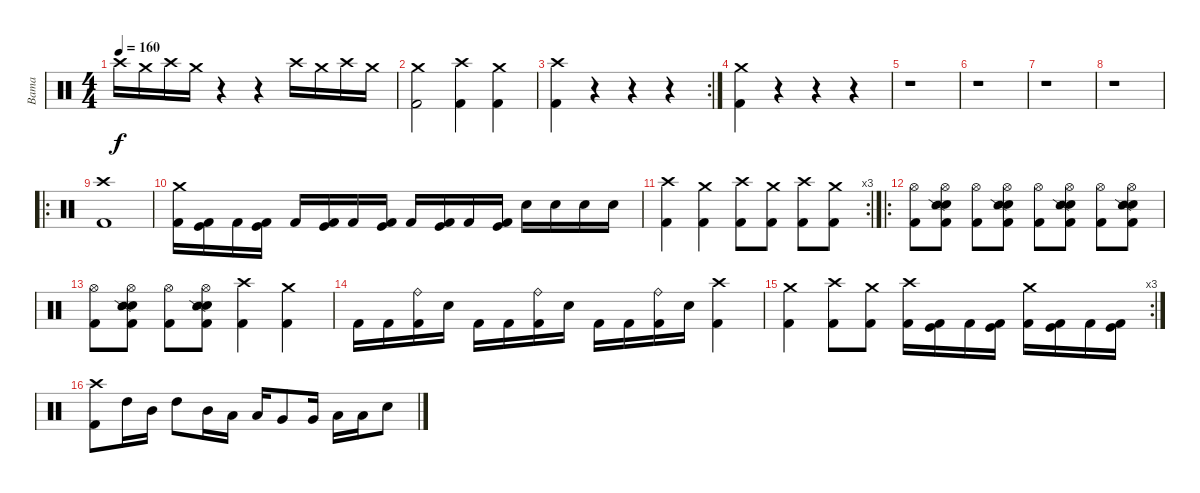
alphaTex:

\track ("Bama" "Bama") {instrument percussion}
\staff {score}
\articulation defaults
\ts (4 4)
\tempo 160
\clef neutral
\ks c "Crash high (hit)".16{dy f} "Crash medium (hit)".16 "Crash high (hit)".16 "Crash medium (hit)".16
r.4 r.4 "Crash high (hit)".16 "Crash medium (hit)".16 "Crash high (hit)".16 "Crash medium (hit)".16 |
("Crash medium (hit)" "Kick (hit) 2").2 ("Crash high (hit)" "Kick (hit) 2").4 ("Crash medium (hit)" "Kick (hit) 2").4 |
\rc 2
("Crash high (hit)" "Kick (hit) 2").4 r.4 r.4 r.4 |
("Crash medium (hit)" "Kick (hit) 2").4 r.4 r.4 r.4 |
r.1 |
r.1 |
r.1 |
r.1 |
\ro
("Crash high (hit)" "Kick (hit) 2").1 |
("Crash medium (hit)" "Kick (hit) 2").16 ("Kick (hit)" "Kick (hit) 2").16 "Kick (hit) 2".16 ("Kick (hit)" "Kick (hit) 2").16 "Kick (hit) 2".16 ("Kick (hit)" "Kick (hit) 2").16 "Kick (hit) 2".16 ("Kick (hit)" "Kick (hit) 2").16 "Kick (hit) 2".16 ("Kick (hit)" "Kick (hit) 2").16 "Kick (hit) 2".16 ("Kick (hit)" "Kick (hit) 2").16 "Electric Snare (hit)".16 "Electric Snare (hit)".16 "Electric Snare (hit)".16 "Electric Snare (hit)".16 |
\rc 3
("Crash high (hit)" "Kick (hit) 2").4 ("Crash medium (hit)" "Kick (hit) 2").4 ("Crash high (hit)" "Kick (hit) 2").8 ("Crash medium (hit)" "Kick (hit) 2").8 ("Crash high (hit)" "Kick (hit) 2").8 ("Crash medium (hit)" "Kick (hit) 2").8 |
\ro
("Hi-Hat (open)" "Kick (hit) 2").8 ("Hi-Hat (open)" "Electric Snare (hit)" "Snare (side stick) 2" "Kick (hit) 2").8 ("Hi-Hat (open)" "Kick (hit) 2").8 ("Hi-Hat (open)" "Electric Snare (hit)" "Snare (side stick) 2" "Kick (hit) 2").8 ("Hi-Hat (open)" "Kick (hit) 2").8 ("Hi-Hat (open)" "Electric Snare (hit)" "Snare (side stick) 2" "Kick (hit) 2").8 ("Hi-Hat (open)" "Kick (hit) 2").8 ("Hi-Hat (open)" "Electric Snare (hit)" "Snare (side stick) 2" "Kick (hit) 2").8 |
("Hi-Hat (open)" "Kick (hit) 2").8 ("Hi-Hat (open)" "Electric Snare (hit)" "Snare (side stick) 2" "Kick (hit) 2").8 ("Hi-Hat (open)" "Kick (hit) 2").8 ("Hi-Hat (open)" "Electric Snare (hit)" "Snare (side stick) 2" "Kick (hit) 2").8 ("Crash high (hit)" "Kick (hit) 2").4 ("Crash medium (hit)" "Kick (hit) 2").4 |
"Kick (hit) 2".16 "Kick (hit) 2".16 ("Ride (bell)" "Kick (hit) 2").16 "Electric Snare (hit)".16 "Kick (hit) 2".16 "Kick (hit) 2".16 ("Ride (bell)" "Kick (hit) 2").16 "Electric Snare (hit)".16 "Kick (hit) 2".16 "Kick (hit) 2".16 ("Ride (bell)" "Kick (hit) 2").16 "Electric Snare (hit)".16 ("Crash high (hit)" "Kick (hit) 2").4 |
\rc 3
("Crash medium (hit)" "Kick (hit) 2").4 ("Crash high (hit)" "Kick (hit) 2").8 ("Crash medium (hit)" "Kick (hit) 2").8 ("Crash high (hit)" "Kick (hit) 2").16 ("Kick (hit)" "Kick (hit) 2").16 "Kick (hit) 2".16 ("Kick (hit)" "Kick (hit) 2").16 ("Crash medium (hit)" "Kick (hit) 2").16 ("Kick (hit)" "Kick (hit) 2").16 "Kick (hit) 2".16 ("Kick (hit)" "Kick (hit) 2").16 |
("Crash high (hit)" "Kick (hit) 2").8 "High Tom (hit)".16 "Mid Tom (hit)".16 "High Tom (hit)".8 "Mid Tom (hit)".16 "Low Tom (hit)".16 "Low Tom (hit)".16 "Very Low Tom (hit)".8 "Very Low Tom (hit)".16 "Low Floor Tom (hit)".16 "Low Floor Tom (hit)".16 "Electric Snare (hit)".8
